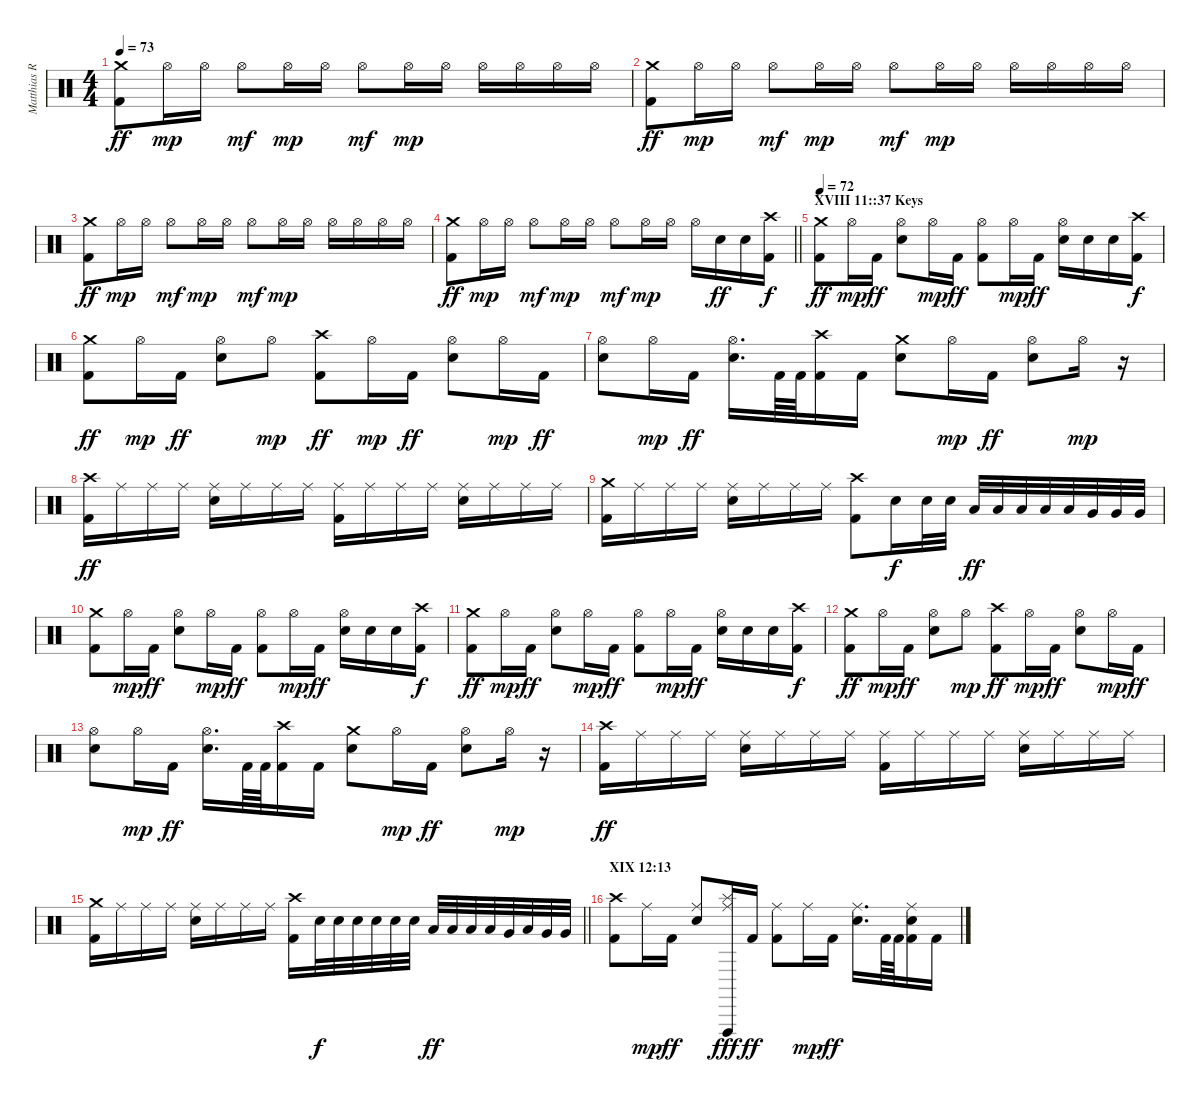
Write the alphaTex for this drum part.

\track ("Matthias R." "Matthias R") {instrument percussion}
\staff {score}
\articulation defaults
\ts (4 4)
\tempo 73
\clef neutral
\ks c
("Crash medium (hit)" "Kick (hit) 2").8{dy ff} "Hi-Hat (open)".16{dy mp} "Hi-Hat (open)".16 "Hi-Hat (open)".8{dy mf} "Hi-Hat (open)".16{dy mp} "Hi-Hat (open)".16 "Hi-Hat (open)".8{dy mf} "Hi-Hat (open)".16{dy mp} "Hi-Hat (open)".16 "Hi-Hat (open)".16 "Hi-Hat (open)".16 "Hi-Hat (open)".16 "Hi-Hat (open)".16 |
("Crash medium (hit)" "Kick (hit) 2").8{dy ff} "Hi-Hat (open)".16{dy mp} "Hi-Hat (open)".16 "Hi-Hat (open)".8{dy mf} "Hi-Hat (open)".16{dy mp} "Hi-Hat (open)".16 "Hi-Hat (open)".8{dy mf} "Hi-Hat (open)".16{dy mp} "Hi-Hat (open)".16 "Hi-Hat (open)".16 "Hi-Hat (open)".16 "Hi-Hat (open)".16 "Hi-Hat (open)".16 |
("Crash medium (hit)" "Kick (hit) 2").8{dy ff} "Hi-Hat (open)".16{dy mp} "Hi-Hat (open)".16 "Hi-Hat (open)".8{dy mf} "Hi-Hat (open)".16{dy mp} "Hi-Hat (open)".16 "Hi-Hat (open)".8{dy mf} "Hi-Hat (open)".16{dy mp} "Hi-Hat (open)".16 "Hi-Hat (open)".16 "Hi-Hat (open)".16 "Hi-Hat (open)".16 "Hi-Hat (open)".16 |
\barLineRight lightlight
("Crash medium (hit)" "Kick (hit) 2").8{dy ff} "Hi-Hat (open)".16{dy mp} "Hi-Hat (open)".16 "Hi-Hat (open)".8{dy mf} "Hi-Hat (open)".16{dy mp} "Hi-Hat (open)".16 "Hi-Hat (open)".8{dy mf} "Hi-Hat (open)".16{dy mp} "Hi-Hat (open)".16 "Hi-Hat (open)".16 "Electric Snare (hit)".16{dy ff} "Electric Snare (hit)".16 ("Crash high (hit)" "Kick (hit) 2").16{dy f} |
\section ("" "XVIII 11::37 Keys")
\tempo 72
("Crash medium (hit)" "Kick (hit) 2").8{dy ff} "Hi-Hat (open)".16{dy mp} "Kick (hit) 2".16{dy ff} ("Hi-Hat (open)" "Electric Snare (hit)").8 "Hi-Hat (open)".16{dy mp} "Kick (hit) 2".16{dy ff} ("Hi-Hat (open)" "Kick (hit) 2").8 "Hi-Hat (open)".16{dy mp} "Kick (hit) 2".16{dy ff} ("Hi-Hat (open)" "Electric Snare (hit)").16 "Electric Snare (hit)".16 "Electric Snare (hit)".16 ("Crash high (hit)" "Kick (hit) 2").16{dy f} |
("Crash medium (hit)" "Kick (hit) 2").8{dy ff} "Hi-Hat (open)".16{dy mp} "Kick (hit) 2".16{dy ff} ("Hi-Hat (open)" "Electric Snare (hit)").8 "Hi-Hat (open)".8{dy mp} ("Crash high (hit)" "Kick (hit) 2").8{dy ff} "Hi-Hat (open)".16{dy mp} "Kick (hit) 2".16{dy ff} ("Hi-Hat (open)" "Electric Snare (hit)").8 "Hi-Hat (open)".16{dy mp} "Kick (hit) 2".16{dy ff} |
("Hi-Hat (open)" "Electric Snare (hit)").8 "Hi-Hat (open)".16{dy mp} "Kick (hit) 2".16{dy ff} ("Hi-Hat (open)" "Electric Snare (hit)").16{d} "Kick (hit) 2".64 "Kick (hit) 2".64 ("Crash high (hit)" "Kick (hit) 2").16 "Kick (hit) 2".16 ("Crash medium (hit)" "Electric Snare (hit)").8 "Hi-Hat (open)".16{dy mp} "Kick (hit) 2".16{dy ff} ("Hi-Hat (open)" "Electric Snare (hit)").8 "Hi-Hat (open)".16{dy mp} r.16 |
("Crash high (hit)" "Kick (hit) 2").16{dy ff} "Ride (middle)".16 "Ride (middle)".16 "Ride (middle)".16 ("Ride (middle)" "Electric Snare (hit)").16 "Ride (middle)".16 "Ride (middle)".16 "Ride (middle)".16 ("Ride (middle)" "Kick (hit) 2").16 "Ride (middle)".16 "Ride (middle)".16 "Ride (middle)".16 ("Ride (middle)" "Electric Snare (hit)").16 "Ride (middle)".16 "Ride (middle)".16 "Ride (middle)".16 |
("Crash medium (hit)" "Kick (hit) 2").16 "Ride (middle)".16 "Ride (middle)".16 "Ride (middle)".16 ("Ride (middle)" "Electric Snare (hit)").16 "Ride (middle)".16 "Ride (middle)".16 "Ride (middle)".16 ("Crash high (hit)" "Kick (hit) 2").8 "Electric Snare (hit)".16{dy f} "Electric Snare (hit)".32 "Electric Snare (hit)".32 "Low Tom (hit)".32{dy ff} "Low Tom (hit)".32 "Low Tom (hit)".32 "Low Tom (hit)".32 "Low Tom (hit)".32 "Very Low Tom (hit)".32 "Very Low Tom (hit)".32 "Very Low Tom (hit)".32 |
("Crash medium (hit)" "Kick (hit) 2").8 "Hi-Hat (open)".16{dy mp} "Kick (hit) 2".16{dy ff} ("Hi-Hat (open)" "Electric Snare (hit)").8 "Hi-Hat (open)".16{dy mp} "Kick (hit) 2".16{dy ff} ("Hi-Hat (open)" "Kick (hit) 2").8 "Hi-Hat (open)".16{dy mp} "Kick (hit) 2".16{dy ff} ("Hi-Hat (open)" "Electric Snare (hit)").16 "Electric Snare (hit)".16 "Electric Snare (hit)".16 ("Crash high (hit)" "Kick (hit) 2").16{dy f} |
("Crash medium (hit)" "Kick (hit) 2").8{dy ff} "Hi-Hat (open)".16{dy mp} "Kick (hit) 2".16{dy ff} ("Hi-Hat (open)" "Electric Snare (hit)").8 "Hi-Hat (open)".16{dy mp} "Kick (hit) 2".16{dy ff} ("Hi-Hat (open)" "Kick (hit) 2").8 "Hi-Hat (open)".16{dy mp} "Kick (hit) 2".16{dy ff} ("Hi-Hat (open)" "Electric Snare (hit)").16 "Electric Snare (hit)".16 "Electric Snare (hit)".16 ("Crash high (hit)" "Kick (hit) 2").16{dy f} |
("Crash medium (hit)" "Kick (hit) 2").8{dy ff} "Hi-Hat (open)".16{dy mp} "Kick (hit) 2".16{dy ff} ("Hi-Hat (open)" "Electric Snare (hit)").8 "Hi-Hat (open)".8{dy mp} ("Crash high (hit)" "Kick (hit) 2").8{dy ff} "Hi-Hat (open)".16{dy mp} "Kick (hit) 2".16{dy ff} ("Hi-Hat (open)" "Electric Snare (hit)").8 "Hi-Hat (open)".16{dy mp} "Kick (hit) 2".16{dy ff} |
("Hi-Hat (open)" "Electric Snare (hit)").8 "Hi-Hat (open)".16{dy mp} "Kick (hit) 2".16{dy ff} ("Hi-Hat (open)" "Electric Snare (hit)").16{d} "Kick (hit) 2".64 "Kick (hit) 2".64 ("Crash high (hit)" "Kick (hit) 2").16 "Kick (hit) 2".16 ("Crash medium (hit)" "Electric Snare (hit)").8 "Hi-Hat (open)".16{dy mp} "Kick (hit) 2".16{dy ff} ("Hi-Hat (open)" "Electric Snare (hit)").8 "Hi-Hat (open)".16{dy mp} r.16 |
("Crash high (hit)" "Kick (hit) 2").16{dy ff} "Ride (middle)".16 "Ride (middle)".16 "Ride (middle)".16 ("Ride (middle)" "Electric Snare (hit)").16 "Ride (middle)".16 "Ride (middle)".16 "Ride (middle)".16 ("Ride (middle)" "Kick (hit) 2").16 "Ride (middle)".16 "Ride (middle)".16 "Ride (middle)".16 ("Ride (middle)" "Electric Snare (hit)").16 "Ride (middle)".16 "Ride (middle)".16 "Ride (middle)".16 |
\barLineRight lightlight
("Crash medium (hit)" "Kick (hit) 2").16 "Ride (middle)".16 "Ride (middle)".16 "Ride (middle)".16 ("Ride (middle)" "Electric Snare (hit)").16 "Ride (middle)".16 "Ride (middle)".16 "Ride (middle)".16 ("Crash high (hit)" "Kick (hit) 2").16 "Electric Snare (hit)".32{dy f} "Electric Snare (hit)".32 "Electric Snare (hit)".32 "Electric Snare (hit)".32 "Electric Snare (hit)".32 "Electric Snare (hit)".32 "Low Tom (hit)".32{dy ff} "Low Tom (hit)".32 "Low Tom (hit)".32 "Low Tom (hit)".32 "Very Low Tom (hit)".32 "Low Tom (hit)".32 "Very Low Tom (hit)".32 "Very Low Tom (hit)".32 |
\section ("" "XIX 12:13")
("Crash high (hit)" "Kick (hit) 2").8 "Ride (middle)".16{dy mp} "Kick (hit) 2".16{dy ff} ("Ride (middle)" "Electric Snare (hit)").8 ("Splash (hit)" "Ride (middle)" "Vibraslap (hit)").16{dy fff} "Kick (hit) 2".16{dy ff} ("Ride (middle)" "Kick (hit) 2").8 "Ride (middle)".16{dy mp} "Kick (hit) 2".16{dy ff} ("Ride (middle)" "Electric Snare (hit)").16{d} "Kick (hit) 2".64 "Kick (hit) 2".64 ("Ride (middle)" "Electric Snare (hit)" "Kick (hit) 2").16 "Kick (hit) 2".16
